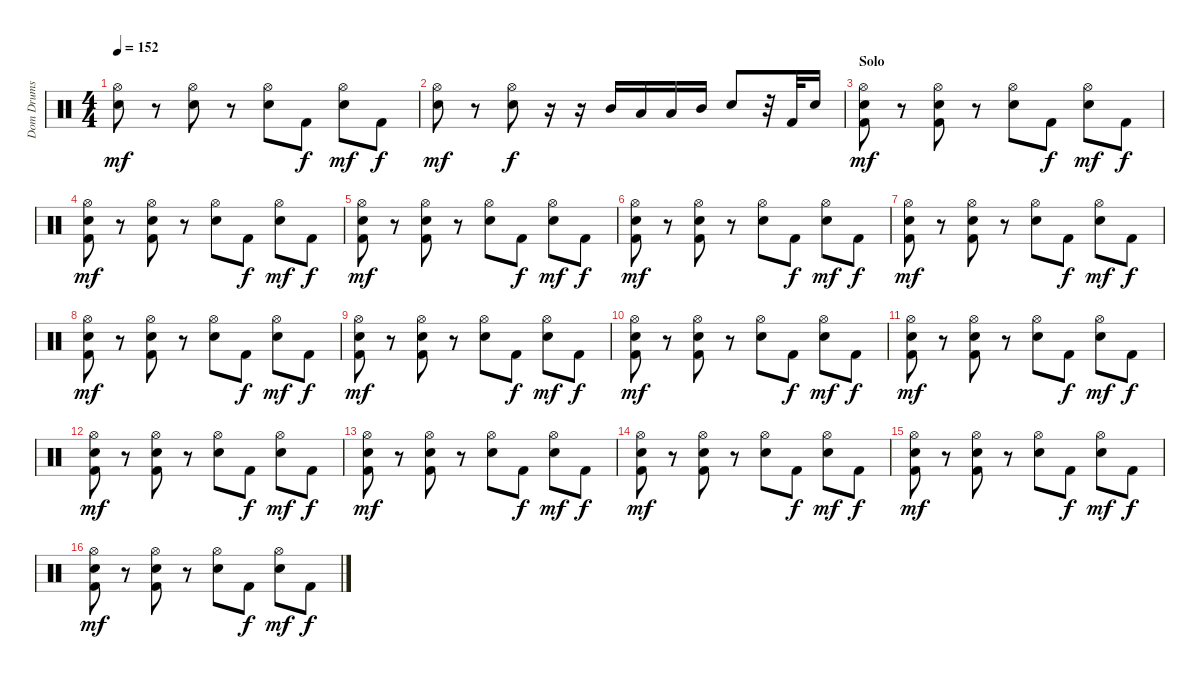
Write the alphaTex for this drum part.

\track ("Dom Drums" "Dom Drums") {instrument percussion}
\staff {score}
\articulation defaults
\ts (4 4)
\tempo 152
\clef neutral
\ks c
("Hi-Hat (open)" "Snare (hit) 2").8{dy mf} r.8 ("Hi-Hat (open)" "Snare (hit) 2").8 r.8 ("Hi-Hat (open)" "Snare (hit) 2").8 "Kick (hit) 2".8{dy f} ("Hi-Hat (open)" "Snare (hit) 2").8{dy mf} "Kick (hit) 2".8{dy f} |
("Hi-Hat (open)" "Snare (hit) 2").8{dy mf} r.8 ("Hi-Hat (open)" "Snare (hit) 2").8{dy f} r.16 r.16 "Mid Tom (hit)".16 "Low Tom (hit)".16 "Low Tom (hit)".16 "Mid Tom (hit)".16 "Snare (hit) 2".8 r.32 "Kick (hit) 2".32 "Snare (hit) 2".16 |
\section ("" "Solo")
("Hi-Hat (open)" "Kick (hit) 2" "Snare (hit) 2").8{dy mf} r.8 ("Hi-Hat (open)" "Kick (hit) 2" "Snare (hit) 2").8 r.8 ("Hi-Hat (open)" "Snare (hit) 2").8 "Kick (hit) 2".8{dy f} ("Hi-Hat (open)" "Snare (hit) 2").8{dy mf} "Kick (hit) 2".8{dy f} |
("Hi-Hat (open)" "Kick (hit) 2" "Snare (hit) 2").8{dy mf} r.8 ("Hi-Hat (open)" "Kick (hit) 2" "Snare (hit) 2").8 r.8 ("Hi-Hat (open)" "Snare (hit) 2").8 "Kick (hit) 2".8{dy f} ("Hi-Hat (open)" "Snare (hit) 2").8{dy mf} "Kick (hit) 2".8{dy f} |
("Hi-Hat (open)" "Kick (hit) 2" "Snare (hit) 2").8{dy mf} r.8 ("Hi-Hat (open)" "Kick (hit) 2" "Snare (hit) 2").8 r.8 ("Hi-Hat (open)" "Snare (hit) 2").8 "Kick (hit) 2".8{dy f} ("Hi-Hat (open)" "Snare (hit) 2").8{dy mf} "Kick (hit) 2".8{dy f} |
("Hi-Hat (open)" "Kick (hit) 2" "Snare (hit) 2").8{dy mf} r.8 ("Hi-Hat (open)" "Kick (hit) 2" "Snare (hit) 2").8 r.8 ("Hi-Hat (open)" "Snare (hit) 2").8 "Kick (hit) 2".8{dy f} ("Hi-Hat (open)" "Snare (hit) 2").8{dy mf} "Kick (hit) 2".8{dy f} |
("Hi-Hat (open)" "Kick (hit) 2" "Snare (hit) 2").8{dy mf} r.8 ("Hi-Hat (open)" "Kick (hit) 2" "Snare (hit) 2").8 r.8 ("Hi-Hat (open)" "Snare (hit) 2").8 "Kick (hit) 2".8{dy f} ("Hi-Hat (open)" "Snare (hit) 2").8{dy mf} "Kick (hit) 2".8{dy f} |
("Hi-Hat (open)" "Kick (hit) 2" "Snare (hit) 2").8{dy mf} r.8 ("Hi-Hat (open)" "Kick (hit) 2" "Snare (hit) 2").8 r.8 ("Hi-Hat (open)" "Snare (hit) 2").8 "Kick (hit) 2".8{dy f} ("Hi-Hat (open)" "Snare (hit) 2").8{dy mf} "Kick (hit) 2".8{dy f} |
("Hi-Hat (open)" "Kick (hit) 2" "Snare (hit) 2").8{dy mf} r.8 ("Hi-Hat (open)" "Kick (hit) 2" "Snare (hit) 2").8 r.8 ("Hi-Hat (open)" "Snare (hit) 2").8 "Kick (hit) 2".8{dy f} ("Hi-Hat (open)" "Snare (hit) 2").8{dy mf} "Kick (hit) 2".8{dy f} |
("Hi-Hat (open)" "Kick (hit) 2" "Snare (hit) 2").8{dy mf} r.8 ("Hi-Hat (open)" "Kick (hit) 2" "Snare (hit) 2").8 r.8 ("Hi-Hat (open)" "Snare (hit) 2").8 "Kick (hit) 2".8{dy f} ("Hi-Hat (open)" "Snare (hit) 2").8{dy mf} "Kick (hit) 2".8{dy f} |
("Hi-Hat (open)" "Kick (hit) 2" "Snare (hit) 2").8{dy mf} r.8 ("Hi-Hat (open)" "Kick (hit) 2" "Snare (hit) 2").8 r.8 ("Hi-Hat (open)" "Snare (hit) 2").8 "Kick (hit) 2".8{dy f} ("Hi-Hat (open)" "Snare (hit) 2").8{dy mf} "Kick (hit) 2".8{dy f} |
("Hi-Hat (open)" "Kick (hit) 2" "Snare (hit) 2").8{dy mf} r.8 ("Hi-Hat (open)" "Kick (hit) 2" "Snare (hit) 2").8 r.8 ("Hi-Hat (open)" "Snare (hit) 2").8 "Kick (hit) 2".8{dy f} ("Hi-Hat (open)" "Snare (hit) 2").8{dy mf} "Kick (hit) 2".8{dy f} |
("Hi-Hat (open)" "Kick (hit) 2" "Snare (hit) 2").8{dy mf} r.8 ("Hi-Hat (open)" "Kick (hit) 2" "Snare (hit) 2").8 r.8 ("Hi-Hat (open)" "Snare (hit) 2").8 "Kick (hit) 2".8{dy f} ("Hi-Hat (open)" "Snare (hit) 2").8{dy mf} "Kick (hit) 2".8{dy f} |
("Hi-Hat (open)" "Kick (hit) 2" "Snare (hit) 2").8{dy mf} r.8 ("Hi-Hat (open)" "Kick (hit) 2" "Snare (hit) 2").8 r.8 ("Hi-Hat (open)" "Snare (hit) 2").8 "Kick (hit) 2".8{dy f} ("Hi-Hat (open)" "Snare (hit) 2").8{dy mf} "Kick (hit) 2".8{dy f} |
("Hi-Hat (open)" "Kick (hit) 2" "Snare (hit) 2").8{dy mf} r.8 ("Hi-Hat (open)" "Kick (hit) 2" "Snare (hit) 2").8 r.8 ("Hi-Hat (open)" "Snare (hit) 2").8 "Kick (hit) 2".8{dy f} ("Hi-Hat (open)" "Snare (hit) 2").8{dy mf} "Kick (hit) 2".8{dy f} |
("Hi-Hat (open)" "Kick (hit) 2" "Snare (hit) 2").8{dy mf} r.8 ("Hi-Hat (open)" "Kick (hit) 2" "Snare (hit) 2").8 r.8 ("Hi-Hat (open)" "Snare (hit) 2").8 "Kick (hit) 2".8{dy f} ("Hi-Hat (open)" "Snare (hit) 2").8{dy mf} "Kick (hit) 2".8{dy f}
